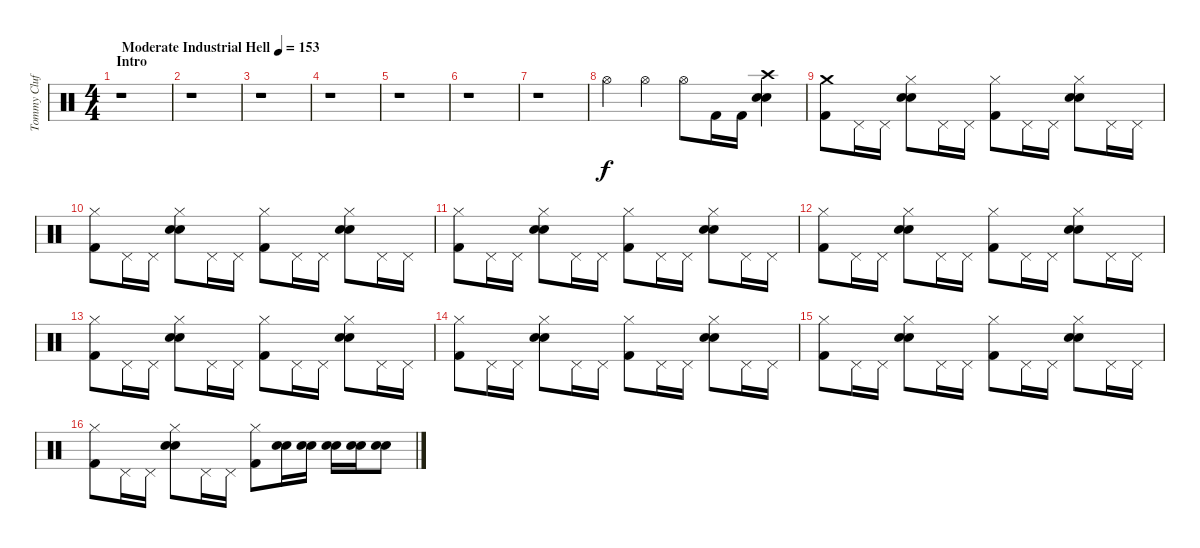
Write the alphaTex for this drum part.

\track ("Tommy Clufetos" "Tommy Cluf") {instrument percussion}
\staff {score}
\articulation defaults
\ts (4 4)
\section ("" "Intro")
\tempo (153 "Moderate Industrial Hell")
\clef neutral
\ks c
r.1{dy f} |
r.1 |
r.1 |
r.1 |
r.1 |
r.1 |
r.1 |
"Hi-Hat (open)".4 "Hi-Hat (open)".4 "Hi-Hat (open)".8 "Kick (hit) 2".16 "Kick (hit) 2".16 ("Crash high (hit)" "Electric Snare (hit)" "Snare (hit) 2").4 |
("Crash medium (hit)" "Kick (hit) 2").8 "Pedal Hi-Hat (hit)".16 "Pedal Hi-Hat (hit)".16 ("Hi-Hat (closed)" "Electric Snare (hit)" "Snare (hit) 2").8 "Pedal Hi-Hat (hit)".16 "Pedal Hi-Hat (hit)".16 ("Hi-Hat (closed)" "Kick (hit) 2").8 "Pedal Hi-Hat (hit)".16 "Pedal Hi-Hat (hit)".16 ("Hi-Hat (closed)" "Electric Snare (hit)" "Snare (hit) 2").8 "Pedal Hi-Hat (hit)".16 "Pedal Hi-Hat (hit)".16 |
("Hi-Hat (closed)" "Kick (hit) 2").8 "Pedal Hi-Hat (hit)".16 "Pedal Hi-Hat (hit)".16 ("Hi-Hat (closed)" "Electric Snare (hit)" "Snare (hit) 2").8 "Pedal Hi-Hat (hit)".16 "Pedal Hi-Hat (hit)".16 ("Hi-Hat (closed)" "Kick (hit) 2").8 "Pedal Hi-Hat (hit)".16 "Pedal Hi-Hat (hit)".16 ("Hi-Hat (closed)" "Electric Snare (hit)" "Snare (hit) 2").8 "Pedal Hi-Hat (hit)".16 "Pedal Hi-Hat (hit)".16 |
("Hi-Hat (closed)" "Kick (hit) 2").8 "Pedal Hi-Hat (hit)".16 "Pedal Hi-Hat (hit)".16 ("Hi-Hat (closed)" "Electric Snare (hit)" "Snare (hit) 2").8 "Pedal Hi-Hat (hit)".16 "Pedal Hi-Hat (hit)".16 ("Hi-Hat (closed)" "Kick (hit) 2").8 "Pedal Hi-Hat (hit)".16 "Pedal Hi-Hat (hit)".16 ("Hi-Hat (closed)" "Electric Snare (hit)" "Snare (hit) 2").8 "Pedal Hi-Hat (hit)".16 "Pedal Hi-Hat (hit)".16 |
("Hi-Hat (closed)" "Kick (hit) 2").8 "Pedal Hi-Hat (hit)".16 "Pedal Hi-Hat (hit)".16 ("Hi-Hat (closed)" "Electric Snare (hit)" "Snare (hit) 2").8 "Pedal Hi-Hat (hit)".16 "Pedal Hi-Hat (hit)".16 ("Hi-Hat (closed)" "Kick (hit) 2").8 "Pedal Hi-Hat (hit)".16 "Pedal Hi-Hat (hit)".16 ("Hi-Hat (closed)" "Electric Snare (hit)" "Snare (hit) 2").8 "Pedal Hi-Hat (hit)".16 "Pedal Hi-Hat (hit)".16 |
("Hi-Hat (closed)" "Kick (hit) 2").8 "Pedal Hi-Hat (hit)".16 "Pedal Hi-Hat (hit)".16 ("Hi-Hat (closed)" "Electric Snare (hit)" "Snare (hit) 2").8 "Pedal Hi-Hat (hit)".16 "Pedal Hi-Hat (hit)".16 ("Hi-Hat (closed)" "Kick (hit) 2").8 "Pedal Hi-Hat (hit)".16 "Pedal Hi-Hat (hit)".16 ("Hi-Hat (closed)" "Electric Snare (hit)" "Snare (hit) 2").8 "Pedal Hi-Hat (hit)".16 "Pedal Hi-Hat (hit)".16 |
("Hi-Hat (closed)" "Kick (hit) 2").8 "Pedal Hi-Hat (hit)".16 "Pedal Hi-Hat (hit)".16 ("Hi-Hat (closed)" "Electric Snare (hit)" "Snare (hit) 2").8 "Pedal Hi-Hat (hit)".16 "Pedal Hi-Hat (hit)".16 ("Hi-Hat (closed)" "Kick (hit) 2").8 "Pedal Hi-Hat (hit)".16 "Pedal Hi-Hat (hit)".16 ("Hi-Hat (closed)" "Electric Snare (hit)" "Snare (hit) 2").8 "Pedal Hi-Hat (hit)".16 "Pedal Hi-Hat (hit)".16 |
("Hi-Hat (closed)" "Kick (hit) 2").8 "Pedal Hi-Hat (hit)".16 "Pedal Hi-Hat (hit)".16 ("Hi-Hat (closed)" "Electric Snare (hit)" "Snare (hit) 2").8 "Pedal Hi-Hat (hit)".16 "Pedal Hi-Hat (hit)".16 ("Hi-Hat (closed)" "Kick (hit) 2").8 "Pedal Hi-Hat (hit)".16 "Pedal Hi-Hat (hit)".16 ("Hi-Hat (closed)" "Electric Snare (hit)" "Snare (hit) 2").8 "Pedal Hi-Hat (hit)".16 "Pedal Hi-Hat (hit)".16 |
("Hi-Hat (closed)" "Kick (hit) 2").8 "Pedal Hi-Hat (hit)".16 "Pedal Hi-Hat (hit)".16 ("Hi-Hat (closed)" "Electric Snare (hit)" "Snare (hit) 2").8 "Pedal Hi-Hat (hit)".16 "Pedal Hi-Hat (hit)".16 ("Hi-Hat (closed)" "Kick (hit) 2").8 ("Electric Snare (hit)" "Snare (hit) 2").16 ("Electric Snare (hit)" "Snare (hit) 2").16 ("Electric Snare (hit)" "Snare (hit) 2").16 ("Electric Snare (hit)" "Snare (hit) 2").16 ("Electric Snare (hit)" "Snare (hit) 2").8
